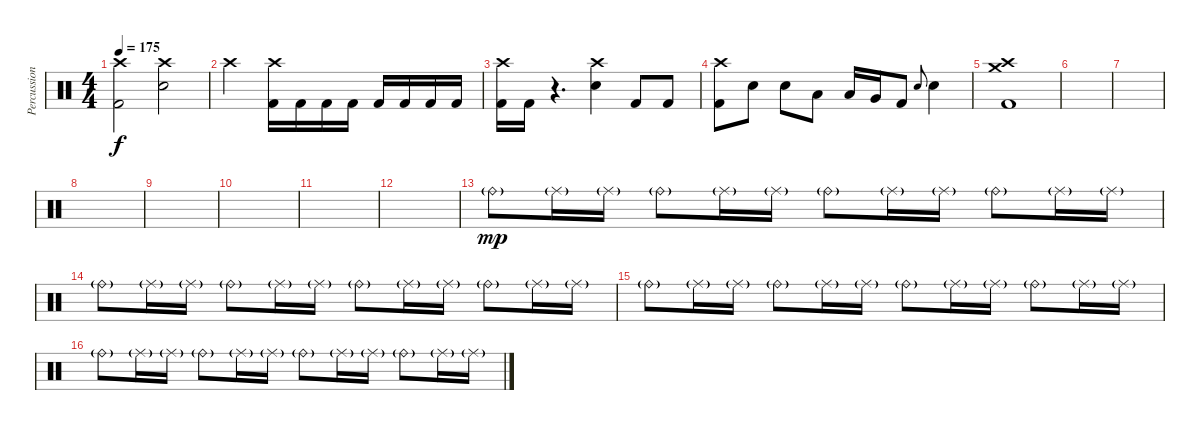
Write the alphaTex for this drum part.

\track ("Percussion" "Percussion") {instrument percussion}
\staff {score}
\articulation defaults
\ts (4 4)
\tempo 175
\clef neutral
\ks c
("Crash high (hit)" "Kick (hit) 2").2{dy f} ("Crash high (hit)" "Electric Snare (hit)").2 |
"Crash high (hit)".2 ("Crash high (hit)" "Kick (hit) 2").16 "Kick (hit) 2".16 "Kick (hit) 2".16 "Kick (hit) 2".16 "Kick (hit) 2".16 "Kick (hit) 2".16 "Kick (hit) 2".16 "Kick (hit) 2".16 |
("Crash high (hit)" "Kick (hit) 2").16 "Kick (hit) 2".16 r.4{d} ("Crash high (hit)" "Electric Snare (hit)").4 "Kick (hit) 2".8 "Kick (hit) 2".8 |
("Crash high (hit)" "Kick (hit) 2").8 "Electric Snare (hit)".8 "Electric Snare (hit)".8 "Low Tom (hit)".8 "Low Tom (hit)".16 "Very Low Tom (hit)".16 "Kick (hit) 2".8 "Electric Snare (hit)".8{gr onbeat} "Electric Snare (hit)".4 |
("Crash medium (hit)" "Crash high (hit)" "Kick (hit) 2").1 |
|
|
|
|
|
|
|
"Ride (bell)"{g}.8{dy mp} "Ride (middle)"{g}.16 "Ride (middle)"{g}.16 "Ride (bell)"{g}.8 "Ride (middle)"{g}.16 "Ride (middle)"{g}.16 "Ride (bell)"{g}.8 "Ride (middle)"{g}.16 "Ride (middle)"{g}.16 "Ride (bell)"{g}.8 "Ride (middle)"{g}.16 "Ride (middle)"{g}.16 |
"Ride (bell)"{g}.8 "Ride (middle)"{g}.16 "Ride (middle)"{g}.16 "Ride (bell)"{g}.8 "Ride (middle)"{g}.16 "Ride (middle)"{g}.16 "Ride (bell)"{g}.8 "Ride (middle)"{g}.16 "Ride (middle)"{g}.16 "Ride (bell)"{g}.8 "Ride (middle)"{g}.16 "Ride (middle)"{g}.16 |
"Ride (bell)"{g}.8 "Ride (middle)"{g}.16 "Ride (middle)"{g}.16 "Ride (bell)"{g}.8 "Ride (middle)"{g}.16 "Ride (middle)"{g}.16 "Ride (bell)"{g}.8 "Ride (middle)"{g}.16 "Ride (middle)"{g}.16 "Ride (bell)"{g}.8 "Ride (middle)"{g}.16 "Ride (middle)"{g}.16 |
"Ride (bell)"{g}.8 "Ride (middle)"{g}.16 "Ride (middle)"{g}.16 "Ride (bell)"{g}.8 "Ride (middle)"{g}.16 "Ride (middle)"{g}.16 "Ride (bell)"{g}.8 "Ride (middle)"{g}.16 "Ride (middle)"{g}.16 "Ride (bell)"{g}.8 "Ride (middle)"{g}.16 "Ride (middle)"{g}.16
